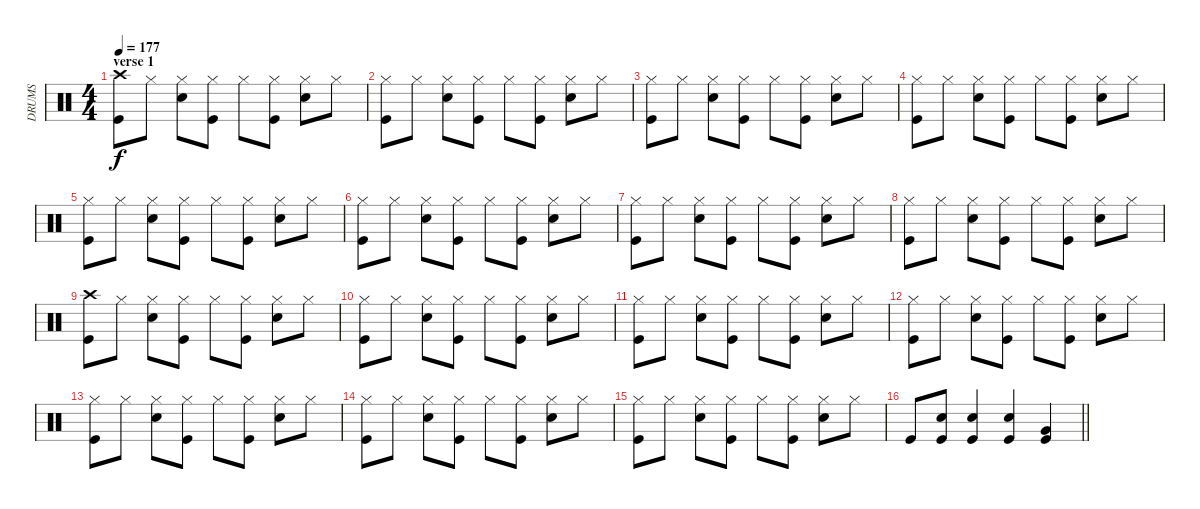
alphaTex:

\track ("DRUMS" "DRUMS") {instrument percussion}
\staff {score}
\articulation defaults
\ts (4 4)
\section ("" "verse 1")
\tempo 177
\clef neutral
\ks c
("Crash high (hit)" "Kick (hit)").8{dy f} "Hi-Hat (closed)".8 ("Hi-Hat (closed)" "Snare (hit) 2").8 ("Hi-Hat (closed)" "Kick (hit)").8 "Hi-Hat (closed)".8 ("Hi-Hat (closed)" "Kick (hit)").8 ("Hi-Hat (closed)" "Snare (hit) 2").8 "Hi-Hat (closed)".8 |
("Hi-Hat (closed)" "Kick (hit)").8 "Hi-Hat (closed)".8 ("Hi-Hat (closed)" "Snare (hit) 2").8 ("Hi-Hat (closed)" "Kick (hit)").8 "Hi-Hat (closed)".8 ("Hi-Hat (closed)" "Kick (hit)").8 ("Hi-Hat (closed)" "Snare (hit) 2").8 "Hi-Hat (closed)".8 |
("Hi-Hat (closed)" "Kick (hit)").8 "Hi-Hat (closed)".8 ("Hi-Hat (closed)" "Snare (hit) 2").8 ("Hi-Hat (closed)" "Kick (hit)").8 "Hi-Hat (closed)".8 ("Hi-Hat (closed)" "Kick (hit)").8 ("Hi-Hat (closed)" "Snare (hit) 2").8 "Hi-Hat (closed)".8 |
("Hi-Hat (closed)" "Kick (hit)").8 "Hi-Hat (closed)".8 ("Hi-Hat (closed)" "Snare (hit) 2").8 ("Hi-Hat (closed)" "Kick (hit)").8 "Hi-Hat (closed)".8 ("Hi-Hat (closed)" "Kick (hit)").8 ("Hi-Hat (closed)" "Snare (hit) 2").8 "Hi-Hat (closed)".8 |
("Hi-Hat (closed)" "Kick (hit)").8 "Hi-Hat (closed)".8 ("Hi-Hat (closed)" "Snare (hit) 2").8 ("Hi-Hat (closed)" "Kick (hit)").8 "Hi-Hat (closed)".8 ("Hi-Hat (closed)" "Kick (hit)").8 ("Hi-Hat (closed)" "Snare (hit) 2").8 "Hi-Hat (closed)".8 |
("Hi-Hat (closed)" "Kick (hit)").8 "Hi-Hat (closed)".8 ("Hi-Hat (closed)" "Snare (hit) 2").8 ("Hi-Hat (closed)" "Kick (hit)").8 "Hi-Hat (closed)".8 ("Hi-Hat (closed)" "Kick (hit)").8 ("Hi-Hat (closed)" "Snare (hit) 2").8 "Hi-Hat (closed)".8 |
("Hi-Hat (closed)" "Kick (hit)").8 "Hi-Hat (closed)".8 ("Hi-Hat (closed)" "Snare (hit) 2").8 ("Hi-Hat (closed)" "Kick (hit)").8 "Hi-Hat (closed)".8 ("Hi-Hat (closed)" "Kick (hit)").8 ("Hi-Hat (closed)" "Snare (hit) 2").8 "Hi-Hat (closed)".8 |
("Hi-Hat (closed)" "Kick (hit)").8 "Hi-Hat (closed)".8 ("Hi-Hat (closed)" "Snare (hit) 2").8 ("Hi-Hat (closed)" "Kick (hit)").8 "Hi-Hat (closed)".8 ("Hi-Hat (closed)" "Kick (hit)").8 ("Hi-Hat (closed)" "Snare (hit) 2").8 "Hi-Hat (closed)".8 |
("Crash high (hit)" "Kick (hit)").8 "Hi-Hat (closed)".8 ("Hi-Hat (closed)" "Snare (hit) 2").8 ("Hi-Hat (closed)" "Kick (hit)").8 "Hi-Hat (closed)".8 ("Hi-Hat (closed)" "Kick (hit)").8 ("Hi-Hat (closed)" "Snare (hit) 2").8 "Hi-Hat (closed)".8 |
("Hi-Hat (closed)" "Kick (hit)").8 "Hi-Hat (closed)".8 ("Hi-Hat (closed)" "Snare (hit) 2").8 ("Hi-Hat (closed)" "Kick (hit)").8 "Hi-Hat (closed)".8 ("Hi-Hat (closed)" "Kick (hit)").8 ("Hi-Hat (closed)" "Snare (hit) 2").8 "Hi-Hat (closed)".8 |
("Hi-Hat (closed)" "Kick (hit)").8 "Hi-Hat (closed)".8 ("Hi-Hat (closed)" "Snare (hit) 2").8 ("Hi-Hat (closed)" "Kick (hit)").8 "Hi-Hat (closed)".8 ("Hi-Hat (closed)" "Kick (hit)").8 ("Hi-Hat (closed)" "Snare (hit) 2").8 "Hi-Hat (closed)".8 |
("Hi-Hat (closed)" "Kick (hit)").8 "Hi-Hat (closed)".8 ("Hi-Hat (closed)" "Snare (hit) 2").8 ("Hi-Hat (closed)" "Kick (hit)").8 "Hi-Hat (closed)".8 ("Hi-Hat (closed)" "Kick (hit)").8 ("Hi-Hat (closed)" "Snare (hit) 2").8 "Hi-Hat (closed)".8 |
("Hi-Hat (closed)" "Kick (hit)").8 "Hi-Hat (closed)".8 ("Hi-Hat (closed)" "Snare (hit) 2").8 ("Hi-Hat (closed)" "Kick (hit)").8 "Hi-Hat (closed)".8 ("Hi-Hat (closed)" "Kick (hit)").8 ("Hi-Hat (closed)" "Snare (hit) 2").8 "Hi-Hat (closed)".8 |
("Hi-Hat (closed)" "Kick (hit)").8 "Hi-Hat (closed)".8 ("Hi-Hat (closed)" "Snare (hit) 2").8 ("Hi-Hat (closed)" "Kick (hit)").8 "Hi-Hat (closed)".8 ("Hi-Hat (closed)" "Kick (hit)").8 ("Hi-Hat (closed)" "Snare (hit) 2").8 "Hi-Hat (closed)".8 |
("Hi-Hat (closed)" "Kick (hit)").8 "Hi-Hat (closed)".8 ("Hi-Hat (closed)" "Snare (hit) 2").8 ("Hi-Hat (closed)" "Kick (hit)").8 "Hi-Hat (closed)".8 ("Hi-Hat (closed)" "Kick (hit)").8 ("Hi-Hat (closed)" "Snare (hit) 2").8 "Hi-Hat (closed)".8 |
\barLineRight lightlight "Kick (hit)".8
("Snare (hit) 2" "Kick (hit)").8 ("Snare (hit) 2" "Kick (hit)").4 ("Snare (hit) 2" "Kick (hit)").4 ("Very Low Tom (hit)" "Kick (hit)").4
